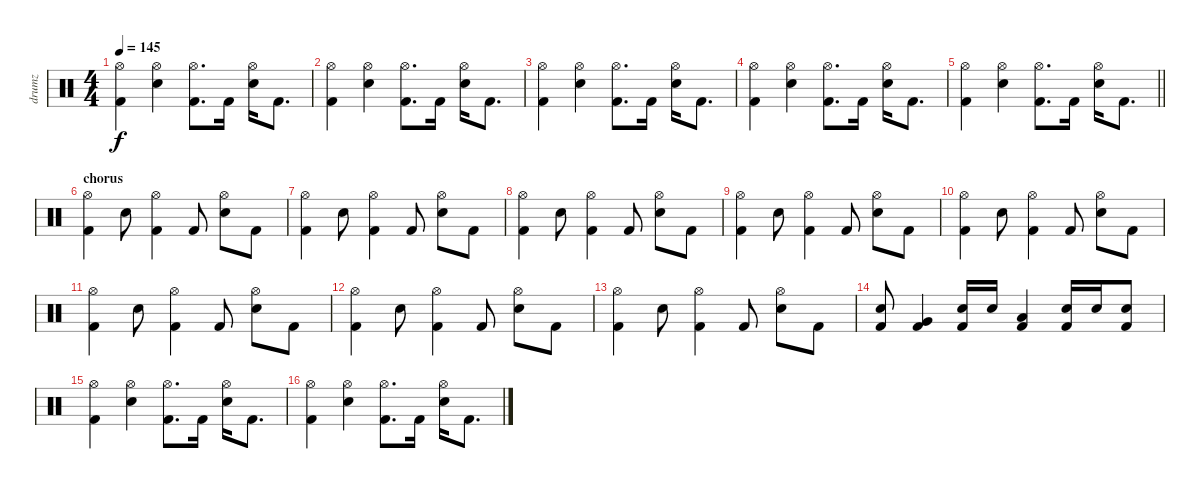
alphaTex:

\track ("drumz" "drumz") {instrument percussion}
\staff {score}
\articulation defaults
\ts (4 4)
\tempo 145
\clef neutral
\ks c
("Hi-Hat (open)" "Kick (hit) 2").4{dy f} ("Hi-Hat (open)" "Electric Snare (hit)").4 ("Hi-Hat (open)" "Kick (hit) 2").8{d} "Kick (hit) 2".16 ("Hi-Hat (open)" "Electric Snare (hit)").16 "Kick (hit) 2".8{d} |
("Hi-Hat (open)" "Kick (hit) 2").4 ("Hi-Hat (open)" "Electric Snare (hit)").4 ("Hi-Hat (open)" "Kick (hit) 2").8{d} "Kick (hit) 2".16 ("Hi-Hat (open)" "Electric Snare (hit)").16 "Kick (hit) 2".8{d} |
("Hi-Hat (open)" "Kick (hit) 2").4 ("Hi-Hat (open)" "Electric Snare (hit)").4 ("Hi-Hat (open)" "Kick (hit) 2").8{d} "Kick (hit) 2".16 ("Hi-Hat (open)" "Electric Snare (hit)").16 "Kick (hit) 2".8{d} |
("Hi-Hat (open)" "Kick (hit) 2").4 ("Hi-Hat (open)" "Electric Snare (hit)").4 ("Hi-Hat (open)" "Kick (hit) 2").8{d} "Kick (hit) 2".16 ("Hi-Hat (open)" "Electric Snare (hit)").16 "Kick (hit) 2".8{d} |
\barLineRight lightlight
("Hi-Hat (open)" "Kick (hit) 2").4 ("Hi-Hat (open)" "Electric Snare (hit)").4 ("Hi-Hat (open)" "Kick (hit) 2").8{d} "Kick (hit) 2".16 ("Hi-Hat (open)" "Electric Snare (hit)").16 "Kick (hit) 2".8{d} |
\section ("" "chorus")
("Hi-Hat (open)" "Kick (hit) 2").4 "Electric Snare (hit)".8 ("Hi-Hat (open)" "Kick (hit) 2").4 "Kick (hit) 2".8 ("Hi-Hat (open)" "Electric Snare (hit)").8 "Kick (hit) 2".8 |
("Hi-Hat (open)" "Kick (hit) 2").4 "Electric Snare (hit)".8 ("Hi-Hat (open)" "Kick (hit) 2").4 "Kick (hit) 2".8 ("Hi-Hat (open)" "Electric Snare (hit)").8 "Kick (hit) 2".8 |
("Hi-Hat (open)" "Kick (hit) 2").4 "Electric Snare (hit)".8 ("Hi-Hat (open)" "Kick (hit) 2").4 "Kick (hit) 2".8 ("Hi-Hat (open)" "Electric Snare (hit)").8 "Kick (hit) 2".8 |
("Hi-Hat (open)" "Kick (hit) 2").4 "Electric Snare (hit)".8 ("Hi-Hat (open)" "Kick (hit) 2").4 "Kick (hit) 2".8 ("Hi-Hat (open)" "Electric Snare (hit)").8 "Kick (hit) 2".8 |
("Hi-Hat (open)" "Kick (hit) 2").4 "Electric Snare (hit)".8 ("Hi-Hat (open)" "Kick (hit) 2").4 "Kick (hit) 2".8 ("Hi-Hat (open)" "Electric Snare (hit)").8 "Kick (hit) 2".8 |
("Hi-Hat (open)" "Kick (hit) 2").4 "Electric Snare (hit)".8 ("Hi-Hat (open)" "Kick (hit) 2").4 "Kick (hit) 2".8 ("Hi-Hat (open)" "Electric Snare (hit)").8 "Kick (hit) 2".8 |
("Hi-Hat (open)" "Kick (hit) 2").4 "Electric Snare (hit)".8 ("Hi-Hat (open)" "Kick (hit) 2").4 "Kick (hit) 2".8 ("Hi-Hat (open)" "Electric Snare (hit)").8 "Kick (hit) 2".8 |
("Hi-Hat (open)" "Kick (hit) 2").4 "Electric Snare (hit)".8 ("Hi-Hat (open)" "Kick (hit) 2").4 "Kick (hit) 2".8 ("Hi-Hat (open)" "Electric Snare (hit)").8 "Kick (hit) 2".8 |
("Electric Snare (hit)" "Kick (hit) 2").8 ("Very Low Tom (hit)" "Kick (hit) 2").4 ("Electric Snare (hit)" "Kick (hit) 2").16 "Electric Snare (hit)".16 ("Low Floor Tom (hit)" "Kick (hit) 2").4 ("Electric Snare (hit)" "Kick (hit) 2").16 "Electric Snare (hit)".16 ("Electric Snare (hit)" "Kick (hit) 2").8 |
("Hi-Hat (open)" "Kick (hit) 2").4 ("Hi-Hat (open)" "Electric Snare (hit)").4 ("Hi-Hat (open)" "Kick (hit) 2").8{d} "Kick (hit) 2".16 ("Hi-Hat (open)" "Electric Snare (hit)").16 "Kick (hit) 2".8{d} |
("Hi-Hat (open)" "Kick (hit) 2").4 ("Hi-Hat (open)" "Electric Snare (hit)").4 ("Hi-Hat (open)" "Kick (hit) 2").8{d} "Kick (hit) 2".16 ("Hi-Hat (open)" "Electric Snare (hit)").16 "Kick (hit) 2".8{d}
